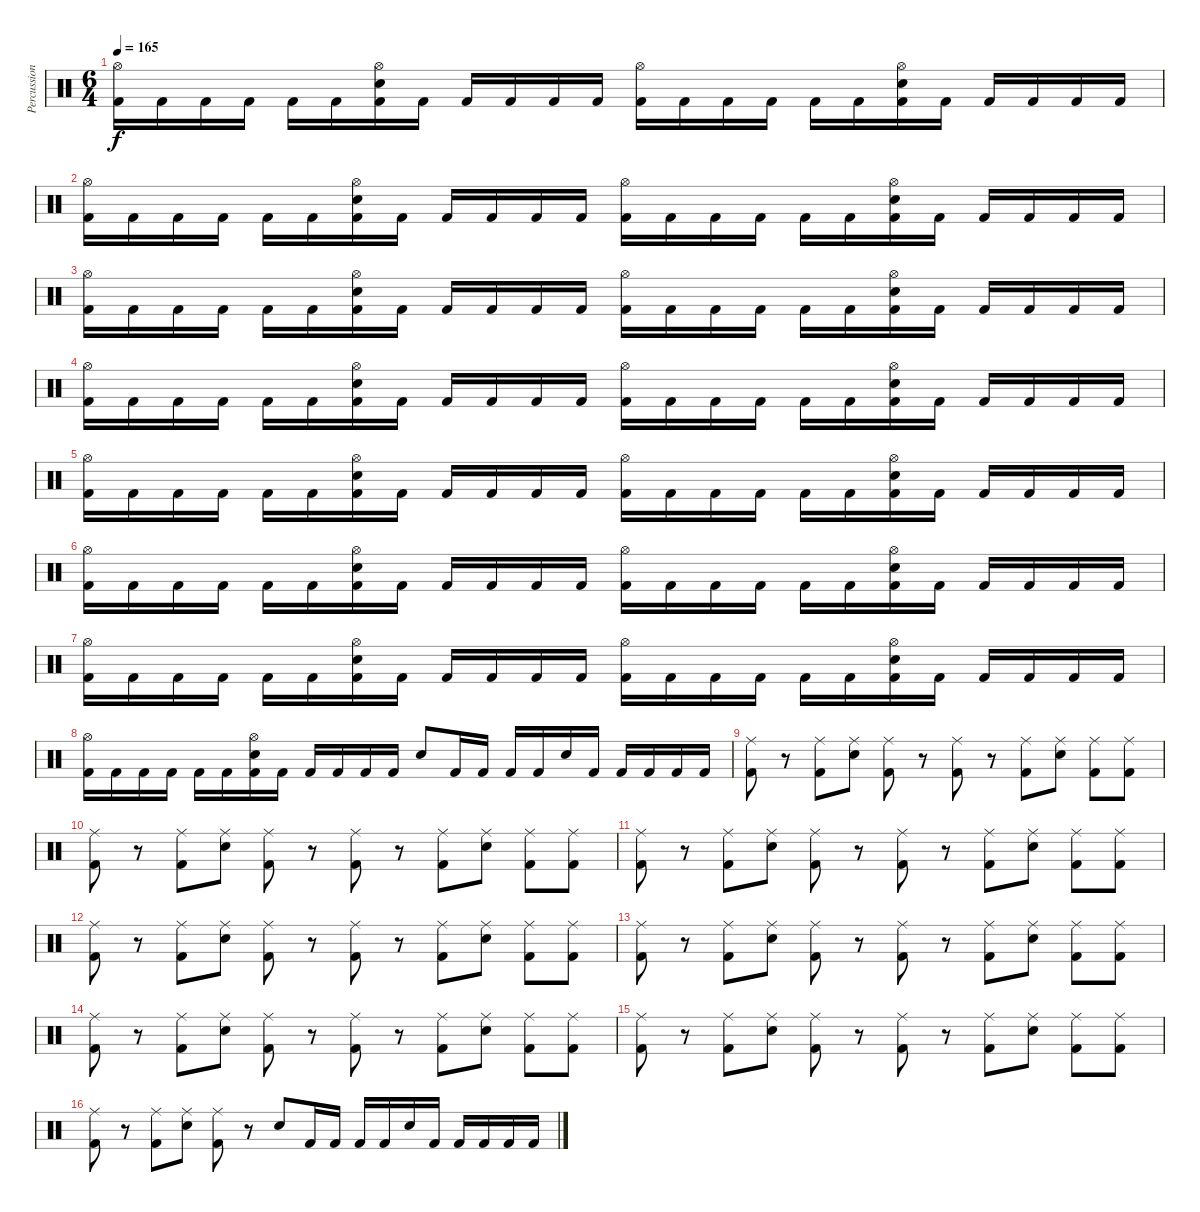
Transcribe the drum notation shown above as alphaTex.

\track ("Percussion" "Percussion") {instrument percussion}
\staff {score}
\articulation defaults
\ts (6 4)
\tempo 165
\clef neutral
\ks c
("Hi-Hat (open)" "Kick (hit) 2").16{dy f} "Kick (hit) 2".16 "Kick (hit) 2".16 "Kick (hit) 2".16 "Kick (hit) 2".16 "Kick (hit) 2".16 ("Hi-Hat (open)" "Electric Snare (hit)" "Kick (hit) 2").16 "Kick (hit) 2".16 "Kick (hit) 2".16 "Kick (hit) 2".16 "Kick (hit) 2".16 "Kick (hit) 2".16 ("Hi-Hat (open)" "Kick (hit) 2").16 "Kick (hit) 2".16 "Kick (hit) 2".16 "Kick (hit) 2".16 "Kick (hit) 2".16 "Kick (hit) 2".16 ("Hi-Hat (open)" "Electric Snare (hit)" "Kick (hit) 2").16 "Kick (hit) 2".16 "Kick (hit) 2".16 "Kick (hit) 2".16 "Kick (hit) 2".16 "Kick (hit) 2".16 |
("Hi-Hat (open)" "Kick (hit) 2").16 "Kick (hit) 2".16 "Kick (hit) 2".16 "Kick (hit) 2".16 "Kick (hit) 2".16 "Kick (hit) 2".16 ("Hi-Hat (open)" "Electric Snare (hit)" "Kick (hit) 2").16 "Kick (hit) 2".16 "Kick (hit) 2".16 "Kick (hit) 2".16 "Kick (hit) 2".16 "Kick (hit) 2".16 ("Hi-Hat (open)" "Kick (hit) 2").16 "Kick (hit) 2".16 "Kick (hit) 2".16 "Kick (hit) 2".16 "Kick (hit) 2".16 "Kick (hit) 2".16 ("Hi-Hat (open)" "Electric Snare (hit)" "Kick (hit) 2").16 "Kick (hit) 2".16 "Kick (hit) 2".16 "Kick (hit) 2".16 "Kick (hit) 2".16 "Kick (hit) 2".16 |
("Hi-Hat (open)" "Kick (hit) 2").16 "Kick (hit) 2".16 "Kick (hit) 2".16 "Kick (hit) 2".16 "Kick (hit) 2".16 "Kick (hit) 2".16 ("Hi-Hat (open)" "Electric Snare (hit)" "Kick (hit) 2").16 "Kick (hit) 2".16 "Kick (hit) 2".16 "Kick (hit) 2".16 "Kick (hit) 2".16 "Kick (hit) 2".16 ("Hi-Hat (open)" "Kick (hit) 2").16 "Kick (hit) 2".16 "Kick (hit) 2".16 "Kick (hit) 2".16 "Kick (hit) 2".16 "Kick (hit) 2".16 ("Hi-Hat (open)" "Electric Snare (hit)" "Kick (hit) 2").16 "Kick (hit) 2".16 "Kick (hit) 2".16 "Kick (hit) 2".16 "Kick (hit) 2".16 "Kick (hit) 2".16 |
("Hi-Hat (open)" "Kick (hit) 2").16 "Kick (hit) 2".16 "Kick (hit) 2".16 "Kick (hit) 2".16 "Kick (hit) 2".16 "Kick (hit) 2".16 ("Hi-Hat (open)" "Electric Snare (hit)" "Kick (hit) 2").16 "Kick (hit) 2".16 "Kick (hit) 2".16 "Kick (hit) 2".16 "Kick (hit) 2".16 "Kick (hit) 2".16 ("Hi-Hat (open)" "Kick (hit) 2").16 "Kick (hit) 2".16 "Kick (hit) 2".16 "Kick (hit) 2".16 "Kick (hit) 2".16 "Kick (hit) 2".16 ("Hi-Hat (open)" "Electric Snare (hit)" "Kick (hit) 2").16 "Kick (hit) 2".16 "Kick (hit) 2".16 "Kick (hit) 2".16 "Kick (hit) 2".16 "Kick (hit) 2".16 |
("Hi-Hat (open)" "Kick (hit) 2").16 "Kick (hit) 2".16 "Kick (hit) 2".16 "Kick (hit) 2".16 "Kick (hit) 2".16 "Kick (hit) 2".16 ("Hi-Hat (open)" "Electric Snare (hit)" "Kick (hit) 2").16 "Kick (hit) 2".16 "Kick (hit) 2".16 "Kick (hit) 2".16 "Kick (hit) 2".16 "Kick (hit) 2".16 ("Hi-Hat (open)" "Kick (hit) 2").16 "Kick (hit) 2".16 "Kick (hit) 2".16 "Kick (hit) 2".16 "Kick (hit) 2".16 "Kick (hit) 2".16 ("Hi-Hat (open)" "Electric Snare (hit)" "Kick (hit) 2").16 "Kick (hit) 2".16 "Kick (hit) 2".16 "Kick (hit) 2".16 "Kick (hit) 2".16 "Kick (hit) 2".16 |
("Hi-Hat (open)" "Kick (hit) 2").16 "Kick (hit) 2".16 "Kick (hit) 2".16 "Kick (hit) 2".16 "Kick (hit) 2".16 "Kick (hit) 2".16 ("Hi-Hat (open)" "Electric Snare (hit)" "Kick (hit) 2").16 "Kick (hit) 2".16 "Kick (hit) 2".16 "Kick (hit) 2".16 "Kick (hit) 2".16 "Kick (hit) 2".16 ("Hi-Hat (open)" "Kick (hit) 2").16 "Kick (hit) 2".16 "Kick (hit) 2".16 "Kick (hit) 2".16 "Kick (hit) 2".16 "Kick (hit) 2".16 ("Hi-Hat (open)" "Electric Snare (hit)" "Kick (hit) 2").16 "Kick (hit) 2".16 "Kick (hit) 2".16 "Kick (hit) 2".16 "Kick (hit) 2".16 "Kick (hit) 2".16 |
("Hi-Hat (open)" "Kick (hit) 2").16 "Kick (hit) 2".16 "Kick (hit) 2".16 "Kick (hit) 2".16 "Kick (hit) 2".16 "Kick (hit) 2".16 ("Hi-Hat (open)" "Electric Snare (hit)" "Kick (hit) 2").16 "Kick (hit) 2".16 "Kick (hit) 2".16 "Kick (hit) 2".16 "Kick (hit) 2".16 "Kick (hit) 2".16 ("Hi-Hat (open)" "Kick (hit) 2").16 "Kick (hit) 2".16 "Kick (hit) 2".16 "Kick (hit) 2".16 "Kick (hit) 2".16 "Kick (hit) 2".16 ("Hi-Hat (open)" "Electric Snare (hit)" "Kick (hit) 2").16 "Kick (hit) 2".16 "Kick (hit) 2".16 "Kick (hit) 2".16 "Kick (hit) 2".16 "Kick (hit) 2".16 |
("Hi-Hat (open)" "Kick (hit) 2").16 "Kick (hit) 2".16 "Kick (hit) 2".16 "Kick (hit) 2".16 "Kick (hit) 2".16 "Kick (hit) 2".16 ("Hi-Hat (open)" "Electric Snare (hit)" "Kick (hit) 2").16 "Kick (hit) 2".16 "Kick (hit) 2".16 "Kick (hit) 2".16 "Kick (hit) 2".16 "Kick (hit) 2".16 "Electric Snare (hit)".8 "Kick (hit) 2".16 "Kick (hit) 2".16 "Kick (hit) 2".16 "Kick (hit) 2".16 "Electric Snare (hit)".16 "Kick (hit) 2".16 "Kick (hit) 2".16 "Kick (hit) 2".16 "Kick (hit) 2".16 "Kick (hit) 2".16 |
("Ride (middle)" "Kick (hit) 2").8 r.8 ("Ride (middle)" "Kick (hit) 2").8 ("Ride (middle)" "Electric Snare (hit)").8 ("Ride (middle)" "Kick (hit) 2").8 r.8 ("Ride (middle)" "Kick (hit) 2").8 r.8 ("Ride (middle)" "Kick (hit) 2").8 ("Ride (middle)" "Electric Snare (hit)").8 ("Ride (middle)" "Kick (hit) 2").8 ("Ride (middle)" "Kick (hit) 2").8 |
("Ride (middle)" "Kick (hit) 2").8 r.8 ("Ride (middle)" "Kick (hit) 2").8 ("Ride (middle)" "Electric Snare (hit)").8 ("Ride (middle)" "Kick (hit) 2").8 r.8 ("Ride (middle)" "Kick (hit) 2").8 r.8 ("Ride (middle)" "Kick (hit) 2").8 ("Ride (middle)" "Electric Snare (hit)").8 ("Ride (middle)" "Kick (hit) 2").8 ("Ride (middle)" "Kick (hit) 2").8 |
("Ride (middle)" "Kick (hit) 2").8 r.8 ("Ride (middle)" "Kick (hit) 2").8 ("Ride (middle)" "Electric Snare (hit)").8 ("Ride (middle)" "Kick (hit) 2").8 r.8 ("Ride (middle)" "Kick (hit) 2").8 r.8 ("Ride (middle)" "Kick (hit) 2").8 ("Ride (middle)" "Electric Snare (hit)").8 ("Ride (middle)" "Kick (hit) 2").8 ("Ride (middle)" "Kick (hit) 2").8 |
("Ride (middle)" "Kick (hit) 2").8 r.8 ("Ride (middle)" "Kick (hit) 2").8 ("Ride (middle)" "Electric Snare (hit)").8 ("Ride (middle)" "Kick (hit) 2").8 r.8 ("Ride (middle)" "Kick (hit) 2").8 r.8 ("Ride (middle)" "Kick (hit) 2").8 ("Ride (middle)" "Electric Snare (hit)").8 ("Ride (middle)" "Kick (hit) 2").8 ("Ride (middle)" "Kick (hit) 2").8 |
("Ride (middle)" "Kick (hit) 2").8 r.8 ("Ride (middle)" "Kick (hit) 2").8 ("Ride (middle)" "Electric Snare (hit)").8 ("Ride (middle)" "Kick (hit) 2").8 r.8 ("Ride (middle)" "Kick (hit) 2").8 r.8 ("Ride (middle)" "Kick (hit) 2").8 ("Ride (middle)" "Electric Snare (hit)").8 ("Ride (middle)" "Kick (hit) 2").8 ("Ride (middle)" "Kick (hit) 2").8 |
("Ride (middle)" "Kick (hit) 2").8 r.8 ("Ride (middle)" "Kick (hit) 2").8 ("Ride (middle)" "Electric Snare (hit)").8 ("Ride (middle)" "Kick (hit) 2").8 r.8 ("Ride (middle)" "Kick (hit) 2").8 r.8 ("Ride (middle)" "Kick (hit) 2").8 ("Ride (middle)" "Electric Snare (hit)").8 ("Ride (middle)" "Kick (hit) 2").8 ("Ride (middle)" "Kick (hit) 2").8 |
("Ride (middle)" "Kick (hit) 2").8 r.8 ("Ride (middle)" "Kick (hit) 2").8 ("Ride (middle)" "Electric Snare (hit)").8 ("Ride (middle)" "Kick (hit) 2").8 r.8 ("Ride (middle)" "Kick (hit) 2").8 r.8 ("Ride (middle)" "Kick (hit) 2").8 ("Ride (middle)" "Electric Snare (hit)").8 ("Ride (middle)" "Kick (hit) 2").8 ("Ride (middle)" "Kick (hit) 2").8 |
("Ride (middle)" "Kick (hit) 2").8 r.8 ("Ride (middle)" "Kick (hit) 2").8 ("Ride (middle)" "Electric Snare (hit)").8 ("Ride (middle)" "Kick (hit) 2").8 r.8 "Electric Snare (hit)".8 "Kick (hit) 2".16 "Kick (hit) 2".16 "Kick (hit) 2".16 "Kick (hit) 2".16 "Electric Snare (hit)".16 "Kick (hit) 2".16 "Kick (hit) 2".16 "Kick (hit) 2".16 "Kick (hit) 2".16 "Kick (hit) 2".16
